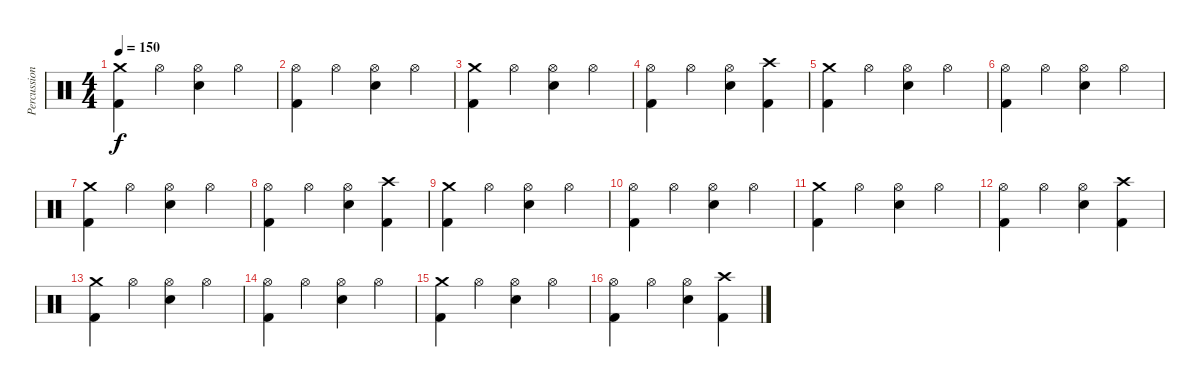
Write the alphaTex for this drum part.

\track ("Percussion" "Percussion") {instrument percussion}
\staff {score}
\articulation defaults
\ts (4 4)
\tempo 150
\clef neutral
\ks c
("Crash medium (hit)" "Kick (hit) 2").4{dy f} "Hi-Hat (open)".4 ("Hi-Hat (open)" "Electric Snare (hit)").4 "Hi-Hat (open)".4 |
("Hi-Hat (open)" "Kick (hit) 2").4 "Hi-Hat (open)".4 ("Hi-Hat (open)" "Electric Snare (hit)").4 "Hi-Hat (open)".4 |
("Crash medium (hit)" "Kick (hit) 2").4 "Hi-Hat (open)".4 ("Hi-Hat (open)" "Electric Snare (hit)").4 "Hi-Hat (open)".4 |
("Hi-Hat (open)" "Kick (hit) 2").4 "Hi-Hat (open)".4 ("Hi-Hat (open)" "Electric Snare (hit)").4 ("Crash high (hit)" "Kick (hit) 2").4 |
("Crash medium (hit)" "Kick (hit) 2").4 "Hi-Hat (open)".4 ("Hi-Hat (open)" "Electric Snare (hit)").4 "Hi-Hat (open)".4 |
("Hi-Hat (open)" "Kick (hit) 2").4 "Hi-Hat (open)".4 ("Hi-Hat (open)" "Electric Snare (hit)").4 "Hi-Hat (open)".4 |
("Crash medium (hit)" "Kick (hit) 2").4 "Hi-Hat (open)".4 ("Hi-Hat (open)" "Electric Snare (hit)").4 "Hi-Hat (open)".4 |
("Hi-Hat (open)" "Kick (hit) 2").4 "Hi-Hat (open)".4 ("Hi-Hat (open)" "Electric Snare (hit)").4 ("Crash high (hit)" "Kick (hit) 2").4 |
("Crash medium (hit)" "Kick (hit) 2").4 "Hi-Hat (open)".4 ("Hi-Hat (open)" "Electric Snare (hit)").4 "Hi-Hat (open)".4 |
("Hi-Hat (open)" "Kick (hit) 2").4 "Hi-Hat (open)".4 ("Hi-Hat (open)" "Electric Snare (hit)").4 "Hi-Hat (open)".4 |
("Crash medium (hit)" "Kick (hit) 2").4 "Hi-Hat (open)".4 ("Hi-Hat (open)" "Electric Snare (hit)").4 "Hi-Hat (open)".4 |
("Hi-Hat (open)" "Kick (hit) 2").4 "Hi-Hat (open)".4 ("Hi-Hat (open)" "Electric Snare (hit)").4 ("Crash high (hit)" "Kick (hit) 2").4 |
("Crash medium (hit)" "Kick (hit) 2").4 "Hi-Hat (open)".4 ("Hi-Hat (open)" "Electric Snare (hit)").4 "Hi-Hat (open)".4 |
("Hi-Hat (open)" "Kick (hit) 2").4 "Hi-Hat (open)".4 ("Hi-Hat (open)" "Electric Snare (hit)").4 "Hi-Hat (open)".4 |
("Crash medium (hit)" "Kick (hit) 2").4 "Hi-Hat (open)".4 ("Hi-Hat (open)" "Electric Snare (hit)").4 "Hi-Hat (open)".4 |
("Hi-Hat (open)" "Kick (hit) 2").4 "Hi-Hat (open)".4 ("Hi-Hat (open)" "Electric Snare (hit)").4 ("Crash high (hit)" "Kick (hit) 2").4
